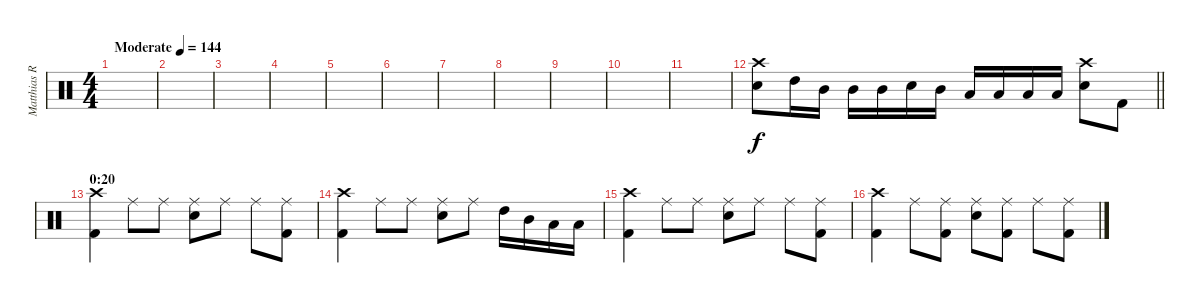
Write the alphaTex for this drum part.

\track ("Matthias R." "Matthias R") {instrument percussion}
\staff {score}
\articulation defaults
\ts (4 4)
\tempo (144 "Moderate")
\clef neutral
\ks c
|
|
|
|
|
|
|
|
|
|
|
\barLineRight lightlight
("Snare (hit) 2" "Crash high (hit)").8 "High Tom (hit)".16 "Mid Tom (hit)".16 "Mid Tom (hit)".16 "Mid Tom (hit)".16 "Snare (hit) 2".16 "Mid Tom (hit)".16 "Low Tom (hit)".16 "Low Tom (hit)".16 "Low Tom (hit)".16 "Low Tom (hit)".16 ("Snare (hit) 2" "Crash high (hit)").8 "Kick (hit) 2".8 |
\section ("" "0:20")
("Kick (hit) 2" "Crash high (hit)").4 "Ride (middle)".8 "Ride (middle)".8 ("Snare (hit) 2" "Ride (middle)").8 "Ride (middle)".8 "Ride (middle)".8 ("Kick (hit) 2" "Ride (middle)").8 |
("Kick (hit) 2" "Crash high (hit)").4 "Ride (middle)".8 "Ride (middle)".8 ("Snare (hit) 2" "Ride (middle)").8 "Ride (middle)".8 "High Tom (hit)".16 "Mid Tom (hit)".16 "Low Tom (hit)".16 "Low Tom (hit)".16 |
("Kick (hit) 2" "Crash high (hit)").4 "Ride (middle)".8 "Ride (middle)".8 ("Snare (hit) 2" "Ride (middle)").8 "Ride (middle)".8 "Ride (middle)".8 ("Kick (hit) 2" "Ride (middle)").8 |
("Kick (hit) 2" "Crash high (hit)").4 "Ride (middle)".8 ("Kick (hit) 2" "Ride (middle)").8 ("Snare (hit) 2" "Ride (middle)").8 ("Kick (hit) 2" "Ride (middle)").8 "Ride (middle)".8 ("Kick (hit) 2" "Ride (middle)").8
